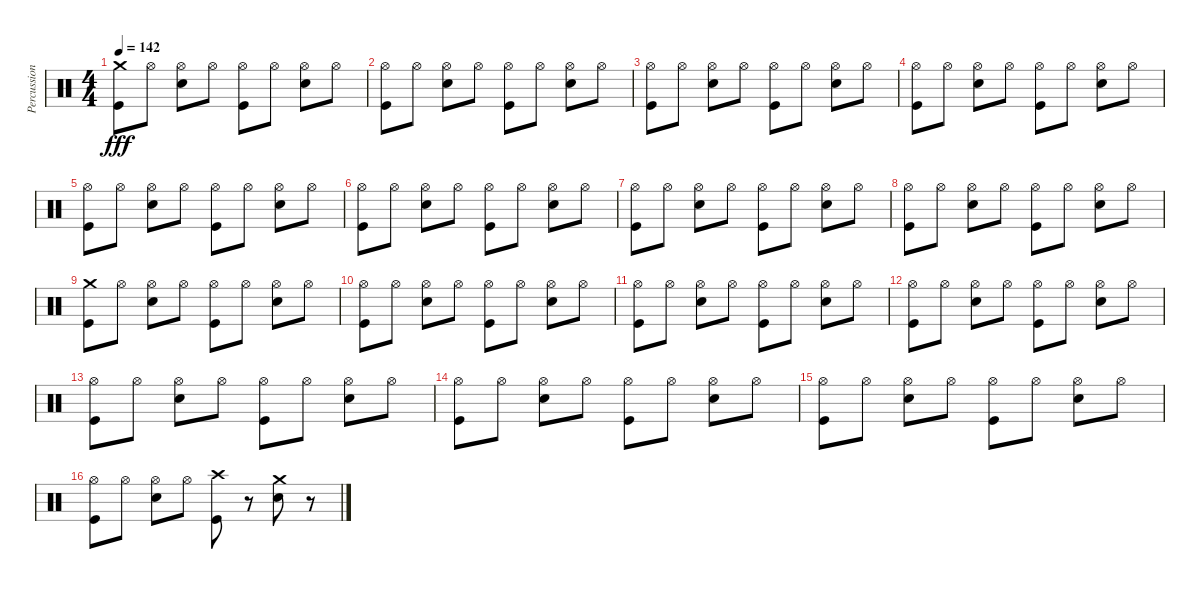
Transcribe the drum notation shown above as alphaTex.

\track ("Percussions" "Percussion") {instrument percussion}
\staff {score}
\articulation defaults
\ts (4 4)
\tempo 142
\clef neutral
\ks c
("Crash medium (hit)" "Kick (hit)").8{dy fff} "Hi-Hat (open)".8 ("Hi-Hat (open)" "Snare (hit) 2").8 "Hi-Hat (open)".8 ("Hi-Hat (open)" "Kick (hit)").8 "Hi-Hat (open)".8 ("Hi-Hat (open)" "Snare (hit) 2").8 "Hi-Hat (open)".8 |
("Hi-Hat (open)" "Kick (hit)").8 "Hi-Hat (open)".8 ("Hi-Hat (open)" "Snare (hit) 2").8 "Hi-Hat (open)".8 ("Hi-Hat (open)" "Kick (hit)").8 "Hi-Hat (open)".8 ("Hi-Hat (open)" "Snare (hit) 2").8 "Hi-Hat (open)".8 |
("Hi-Hat (open)" "Kick (hit)").8 "Hi-Hat (open)".8 ("Hi-Hat (open)" "Snare (hit) 2").8 "Hi-Hat (open)".8 ("Hi-Hat (open)" "Kick (hit)").8 "Hi-Hat (open)".8 ("Hi-Hat (open)" "Snare (hit) 2").8 "Hi-Hat (open)".8 |
("Hi-Hat (open)" "Kick (hit)").8 "Hi-Hat (open)".8 ("Hi-Hat (open)" "Snare (hit) 2").8 "Hi-Hat (open)".8 ("Hi-Hat (open)" "Kick (hit)").8 "Hi-Hat (open)".8 ("Hi-Hat (open)" "Snare (hit) 2").8 "Hi-Hat (open)".8 |
("Hi-Hat (open)" "Kick (hit)").8 "Hi-Hat (open)".8 ("Hi-Hat (open)" "Snare (hit) 2").8 "Hi-Hat (open)".8 ("Hi-Hat (open)" "Kick (hit)").8 "Hi-Hat (open)".8 ("Hi-Hat (open)" "Snare (hit) 2").8 "Hi-Hat (open)".8 |
("Hi-Hat (open)" "Kick (hit)").8 "Hi-Hat (open)".8 ("Hi-Hat (open)" "Snare (hit) 2").8 "Hi-Hat (open)".8 ("Hi-Hat (open)" "Kick (hit)").8 "Hi-Hat (open)".8 ("Hi-Hat (open)" "Snare (hit) 2").8 "Hi-Hat (open)".8 |
("Hi-Hat (open)" "Kick (hit)").8 "Hi-Hat (open)".8 ("Hi-Hat (open)" "Snare (hit) 2").8 "Hi-Hat (open)".8 ("Hi-Hat (open)" "Kick (hit)").8 "Hi-Hat (open)".8 ("Hi-Hat (open)" "Snare (hit) 2").8 "Hi-Hat (open)".8 |
("Hi-Hat (open)" "Kick (hit)").8 "Hi-Hat (open)".8 ("Hi-Hat (open)" "Snare (hit) 2").8 "Hi-Hat (open)".8 ("Hi-Hat (open)" "Kick (hit)").8 "Hi-Hat (open)".8 ("Hi-Hat (open)" "Snare (hit) 2").8 "Hi-Hat (open)".8 |
("Crash medium (hit)" "Kick (hit)").8 "Hi-Hat (open)".8 ("Hi-Hat (open)" "Snare (hit) 2").8 "Hi-Hat (open)".8 ("Hi-Hat (open)" "Kick (hit)").8 "Hi-Hat (open)".8 ("Hi-Hat (open)" "Snare (hit) 2").8 "Hi-Hat (open)".8 |
("Hi-Hat (open)" "Kick (hit)").8 "Hi-Hat (open)".8 ("Hi-Hat (open)" "Snare (hit) 2").8 "Hi-Hat (open)".8 ("Hi-Hat (open)" "Kick (hit)").8 "Hi-Hat (open)".8 ("Hi-Hat (open)" "Snare (hit) 2").8 "Hi-Hat (open)".8 |
("Hi-Hat (open)" "Kick (hit)").8 "Hi-Hat (open)".8 ("Hi-Hat (open)" "Snare (hit) 2").8 "Hi-Hat (open)".8 ("Hi-Hat (open)" "Kick (hit)").8 "Hi-Hat (open)".8 ("Hi-Hat (open)" "Snare (hit) 2").8 "Hi-Hat (open)".8 |
("Hi-Hat (open)" "Kick (hit)").8 "Hi-Hat (open)".8 ("Hi-Hat (open)" "Snare (hit) 2").8 "Hi-Hat (open)".8 ("Hi-Hat (open)" "Kick (hit)").8 "Hi-Hat (open)".8 ("Hi-Hat (open)" "Snare (hit) 2").8 "Hi-Hat (open)".8 |
("Hi-Hat (open)" "Kick (hit)").8 "Hi-Hat (open)".8 ("Hi-Hat (open)" "Snare (hit) 2").8 "Hi-Hat (open)".8 ("Hi-Hat (open)" "Kick (hit)").8 "Hi-Hat (open)".8 ("Hi-Hat (open)" "Snare (hit) 2").8 "Hi-Hat (open)".8 |
("Hi-Hat (open)" "Kick (hit)").8 "Hi-Hat (open)".8 ("Hi-Hat (open)" "Snare (hit) 2").8 "Hi-Hat (open)".8 ("Hi-Hat (open)" "Kick (hit)").8 "Hi-Hat (open)".8 ("Hi-Hat (open)" "Snare (hit) 2").8 "Hi-Hat (open)".8 |
("Hi-Hat (open)" "Kick (hit)").8 "Hi-Hat (open)".8 ("Hi-Hat (open)" "Snare (hit) 2").8 "Hi-Hat (open)".8 ("Hi-Hat (open)" "Kick (hit)").8 "Hi-Hat (open)".8 ("Hi-Hat (open)" "Snare (hit) 2").8 "Hi-Hat (open)".8 |
("Hi-Hat (open)" "Kick (hit)").8 "Hi-Hat (open)".8 ("Hi-Hat (open)" "Snare (hit) 2").8 "Hi-Hat (open)".8 ("Crash high (hit)" "Kick (hit)").8 r.8 ("Crash medium (hit)" "Snare (hit) 2").8 r.8
